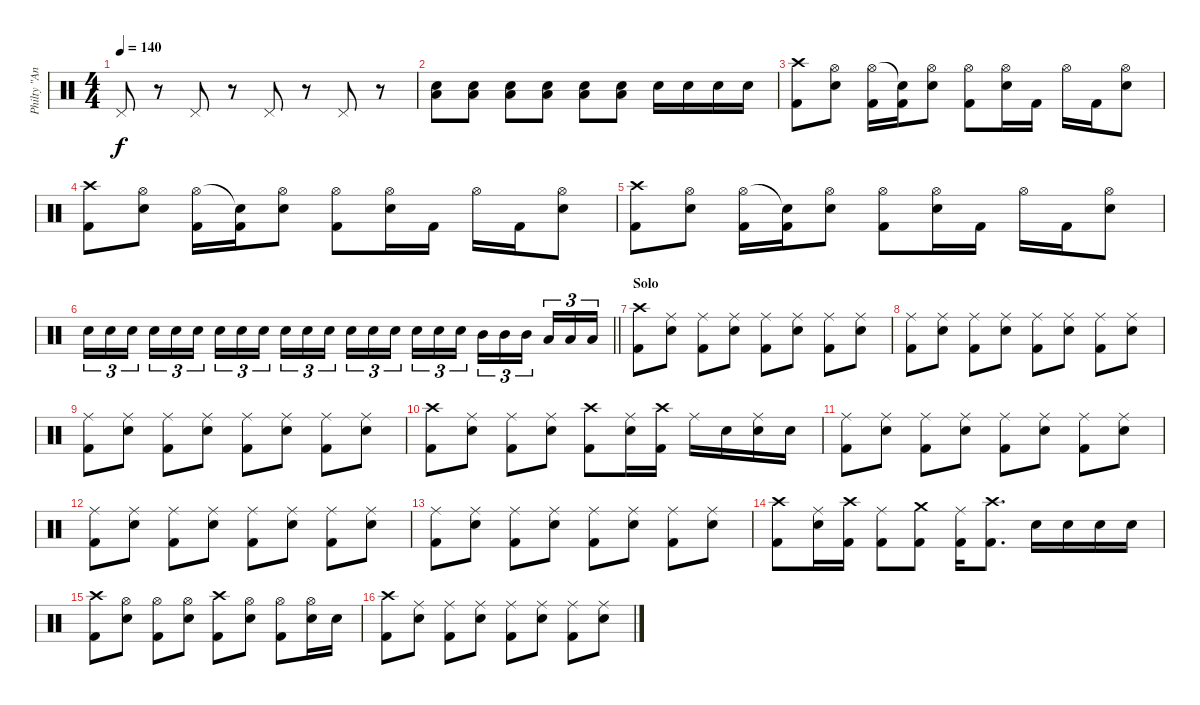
\track ("Philty \"Animal\" Taylor (Drums)" "Philty \"An") {instrument percussion}
\staff {score}
\articulation defaults
\ts (4 4)
\tempo 140
\clef neutral
\ks c "Pedal Hi-Hat (hit)".8{dy f}
r.8 "Pedal Hi-Hat (hit)".8 r.8 "Pedal Hi-Hat (hit)".8 r.8 "Pedal Hi-Hat (hit)".8 r.8 |
("Electric Snare (hit)" "Low Floor Tom (hit)").8 ("Electric Snare (hit)" "Low Floor Tom (hit)").8 ("Electric Snare (hit)" "Low Floor Tom (hit)").8 ("Electric Snare (hit)" "Low Floor Tom (hit)").8 ("Electric Snare (hit)" "Low Floor Tom (hit)").8 ("Electric Snare (hit)" "Low Floor Tom (hit)").8 "Electric Snare (hit)".16 "Electric Snare (hit)".16 "Electric Snare (hit)".16 "Electric Snare (hit)".16 |
("Crash high (hit)" "Kick (hit) 2").8 ("Hi-Hat (open)" "Electric Snare (hit)").8 ("Hi-Hat (open)" "Kick (hit) 2").16 ("Snare (hit)"{t} "Kick (hit) 2").16 ("Hi-Hat (open)" "Electric Snare (hit)").8 ("Hi-Hat (open)" "Kick (hit) 2").8 ("Hi-Hat (open)" "Electric Snare (hit)").16 "Kick (hit) 2".16 "Hi-Hat (open)".16 "Kick (hit) 2".16 ("Hi-Hat (open)" "Electric Snare (hit)").8 |
("Crash high (hit)" "Kick (hit) 2").8 ("Hi-Hat (open)" "Electric Snare (hit)").8 ("Hi-Hat (open)" "Kick (hit) 2").16 ("Snare (hit)"{t} "Kick (hit) 2").16 ("Hi-Hat (open)" "Electric Snare (hit)").8 ("Hi-Hat (open)" "Kick (hit) 2").8 ("Hi-Hat (open)" "Electric Snare (hit)").16 "Kick (hit) 2".16 "Hi-Hat (open)".16 "Kick (hit) 2".16 ("Hi-Hat (open)" "Electric Snare (hit)").8 |
("Crash high (hit)" "Kick (hit) 2").8 ("Hi-Hat (open)" "Electric Snare (hit)").8 ("Hi-Hat (open)" "Kick (hit) 2").16 ("Snare (hit)"{t} "Kick (hit) 2").16 ("Hi-Hat (open)" "Electric Snare (hit)").8 ("Hi-Hat (open)" "Kick (hit) 2").8 ("Hi-Hat (open)" "Electric Snare (hit)").16 "Kick (hit) 2".16 "Hi-Hat (open)".16 "Kick (hit) 2".16 ("Hi-Hat (open)" "Electric Snare (hit)").8 |
\barLineRight lightlight "Electric Snare (hit)".16{tu (3 2)} "Electric Snare (hit)".16{tu (3 2)} "Electric Snare (hit)".16{tu (3 2) beam splitsecondary} "Electric Snare (hit)".16{tu (3 2)} "Electric Snare (hit)".16{tu (3 2)} "Electric Snare (hit)".16{tu (3 2)} "Electric Snare (hit)".16{tu (3 2)} "Electric Snare (hit)".16{tu (3 2)} "Electric Snare (hit)".16{tu (3 2) beam splitsecondary} "Electric Snare (hit)".16{tu (3 2)} "Electric Snare (hit)".16{tu (3 2)} "Electric Snare (hit)".16{tu (3 2)} "Electric Snare (hit)".16{tu (3 2)} "Electric Snare (hit)".16{tu (3 2)} "Electric Snare (hit)".16{tu (3 2) beam splitsecondary} "Electric Snare (hit)".16{tu (3 2)} "Electric Snare (hit)".16{tu (3 2)} "Electric Snare (hit)".16{tu (3 2)} "Mid Tom (hit)".16{tu (3 2)} "Mid Tom (hit)".16{tu (3 2)} "Mid Tom (hit)".16{tu (3 2) beam splitsecondary} "Low Tom (hit)".16{tu (3 2)} "Low Tom (hit)".16{tu (3 2)} "Low Tom (hit)".16{tu (3 2)}
|
\section ("" "Solo")
("Crash high (hit)" "Kick (hit) 2").8 ("Ride (middle)" "Electric Snare (hit)").8 ("Ride (middle)" "Kick (hit) 2").8 ("Ride (middle)" "Electric Snare (hit)").8 ("Ride (middle)" "Kick (hit) 2").8 ("Ride (middle)" "Electric Snare (hit)").8 ("Ride (middle)" "Kick (hit) 2").8 ("Ride (middle)" "Electric Snare (hit)").8 |
("Ride (middle)" "Kick (hit) 2").8 ("Ride (middle)" "Electric Snare (hit)").8 ("Ride (middle)" "Kick (hit) 2").8 ("Ride (middle)" "Electric Snare (hit)").8 ("Ride (middle)" "Kick (hit) 2").8 ("Ride (middle)" "Electric Snare (hit)").8 ("Ride (middle)" "Kick (hit) 2").8 ("Ride (middle)" "Electric Snare (hit)").8 |
("Ride (middle)" "Kick (hit) 2").8 ("Ride (middle)" "Electric Snare (hit)").8 ("Ride (middle)" "Kick (hit) 2").8 ("Ride (middle)" "Electric Snare (hit)").8 ("Ride (middle)" "Kick (hit) 2").8 ("Ride (middle)" "Electric Snare (hit)").8 ("Ride (middle)" "Kick (hit) 2").8 ("Ride (middle)" "Electric Snare (hit)").8 |
("Crash high (hit)" "Kick (hit) 2").8 ("Ride (middle)" "Electric Snare (hit)").8 ("Ride (middle)" "Kick (hit) 2").8 ("Ride (middle)" "Electric Snare (hit)").8 ("Crash high (hit)" "Kick (hit) 2").8 ("Ride (middle)" "Electric Snare (hit)").16 ("Crash high (hit)" "Kick (hit) 2").16 "Ride (middle)".16 "Electric Snare (hit)".16 ("Ride (middle)" "Electric Snare (hit)").16 "Electric Snare (hit)".16 |
("Ride (middle)" "Kick (hit) 2").8 ("Ride (middle)" "Electric Snare (hit)").8 ("Ride (middle)" "Kick (hit) 2").8 ("Ride (middle)" "Electric Snare (hit)").8 ("Ride (middle)" "Kick (hit) 2").8 ("Ride (middle)" "Electric Snare (hit)").8 ("Ride (middle)" "Kick (hit) 2").8 ("Ride (middle)" "Electric Snare (hit)").8 |
("Ride (middle)" "Kick (hit) 2").8 ("Ride (middle)" "Electric Snare (hit)").8 ("Ride (middle)" "Kick (hit) 2").8 ("Ride (middle)" "Electric Snare (hit)").8 ("Ride (middle)" "Kick (hit) 2").8 ("Ride (middle)" "Electric Snare (hit)").8 ("Ride (middle)" "Kick (hit) 2").8 ("Ride (middle)" "Electric Snare (hit)").8 |
("Ride (middle)" "Kick (hit) 2").8 ("Ride (middle)" "Electric Snare (hit)").8 ("Ride (middle)" "Kick (hit) 2").8 ("Ride (middle)" "Electric Snare (hit)").8 ("Ride (middle)" "Kick (hit) 2").8 ("Ride (middle)" "Electric Snare (hit)").8 ("Ride (middle)" "Kick (hit) 2").8 ("Ride (middle)" "Electric Snare (hit)").8 |
("Crash high (hit)" "Kick (hit) 2").8 ("Ride (middle)" "Electric Snare (hit)").16 ("Crash high (hit)" "Kick (hit) 2").16 ("Ride (middle)" "Kick (hit) 2").8 ("Crash medium (hit)" "Kick (hit) 2").8 ("Ride (middle)" "Kick (hit) 2").16 ("Crash high (hit)" "Kick (hit) 2").8{d} "Electric Snare (hit)".16 "Electric Snare (hit)".16 "Electric Snare (hit)".16 "Electric Snare (hit)".16 |
("Crash high (hit)" "Kick (hit) 2").8 ("Hi-Hat (open)" "Electric Snare (hit)").8 ("Hi-Hat (open)" "Kick (hit) 2").8 ("Hi-Hat (open)" "Electric Snare (hit)").8 ("Crash high (hit)" "Kick (hit) 2").8 ("Hi-Hat (open)" "Electric Snare (hit)").8 ("Hi-Hat (open)" "Kick (hit) 2").8 ("Hi-Hat (open)" "Electric Snare (hit)").16 "Electric Snare (hit)".16 |
("Crash high (hit)" "Kick (hit) 2").8 ("Ride (middle)" "Electric Snare (hit)").8 ("Ride (middle)" "Kick (hit) 2").8 ("Ride (middle)" "Electric Snare (hit)").8 ("Ride (middle)" "Kick (hit) 2").8 ("Ride (middle)" "Electric Snare (hit)").8 ("Ride (middle)" "Kick (hit) 2").8 ("Ride (middle)" "Electric Snare (hit)").8
